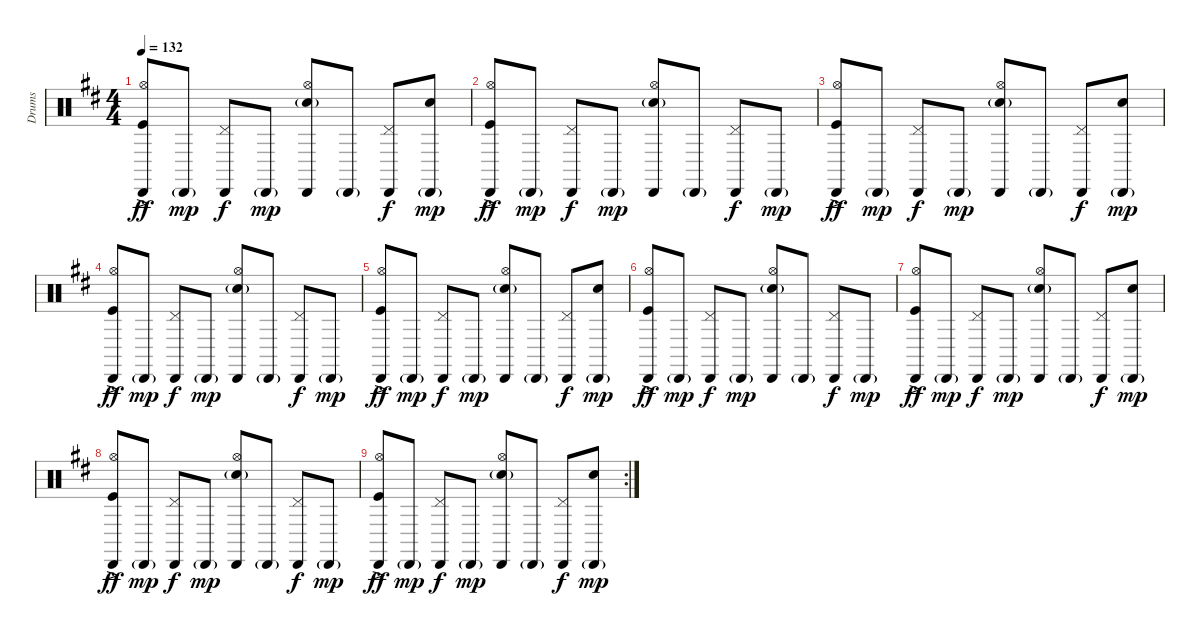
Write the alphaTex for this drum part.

\track ("Drums" "Drums") {instrument percussion}
\staff {score}
\articulation defaults
\ts (4 4)
\tempo 132
\clef neutral
\ks d
("Cabasa (hit)" "Hi-Hat (open)" "Kick (hit)"{ac}).8{dy ff} "Cabasa (hit)"{g}.8{dy mp} ("Cabasa (hit)" "Pedal Hi-Hat (hit)").8{dy f} "Cabasa (hit)"{g}.8{dy mp} ("Cabasa (hit)" "Hi-Hat (open)" "Snare (hit) 2"{g}).8 "Cabasa (hit)"{g}.8 ("Cabasa (hit)" "Pedal Hi-Hat (hit)").8{dy f} ("Cabasa (hit)"{g} "Snare (hit) 2").8{dy mp} |
("Cabasa (hit)" "Hi-Hat (open)" "Kick (hit)"{ac}).8{dy ff} "Cabasa (hit)"{g}.8{dy mp} ("Cabasa (hit)" "Pedal Hi-Hat (hit)").8{dy f} "Cabasa (hit)"{g}.8{dy mp} ("Cabasa (hit)" "Hi-Hat (open)" "Snare (hit) 2"{g}).8 "Cabasa (hit)"{g}.8 ("Cabasa (hit)" "Pedal Hi-Hat (hit)").8{dy f} "Cabasa (hit)"{g}.8{dy mp} |
("Cabasa (hit)" "Hi-Hat (open)" "Kick (hit)"{ac}).8{dy ff} "Cabasa (hit)"{g}.8{dy mp} ("Cabasa (hit)" "Pedal Hi-Hat (hit)").8{dy f} "Cabasa (hit)"{g}.8{dy mp} ("Cabasa (hit)" "Hi-Hat (open)" "Snare (hit) 2"{g}).8 "Cabasa (hit)"{g}.8 ("Cabasa (hit)" "Pedal Hi-Hat (hit)").8{dy f} ("Cabasa (hit)"{g} "Snare (hit) 2").8{dy mp} |
("Cabasa (hit)" "Hi-Hat (open)" "Kick (hit)"{ac}).8{dy ff} "Cabasa (hit)"{g}.8{dy mp} ("Cabasa (hit)" "Pedal Hi-Hat (hit)").8{dy f} "Cabasa (hit)"{g}.8{dy mp} ("Cabasa (hit)" "Hi-Hat (open)" "Snare (hit) 2"{g}).8 "Cabasa (hit)"{g}.8 ("Cabasa (hit)" "Pedal Hi-Hat (hit)").8{dy f} "Cabasa (hit)"{g}.8{dy mp} |
("Cabasa (hit)" "Hi-Hat (open)" "Kick (hit)"{ac}).8{dy ff} "Cabasa (hit)"{g}.8{dy mp} ("Cabasa (hit)" "Pedal Hi-Hat (hit)").8{dy f} "Cabasa (hit)"{g}.8{dy mp} ("Cabasa (hit)" "Hi-Hat (open)" "Snare (hit) 2"{g}).8 "Cabasa (hit)"{g}.8 ("Cabasa (hit)" "Pedal Hi-Hat (hit)").8{dy f} ("Cabasa (hit)"{g} "Snare (hit) 2").8{dy mp} |
("Cabasa (hit)" "Hi-Hat (open)" "Kick (hit)"{ac}).8{dy ff} "Cabasa (hit)"{g}.8{dy mp} ("Cabasa (hit)" "Pedal Hi-Hat (hit)").8{dy f} "Cabasa (hit)"{g}.8{dy mp} ("Cabasa (hit)" "Hi-Hat (open)" "Snare (hit) 2"{g}).8 "Cabasa (hit)"{g}.8 ("Cabasa (hit)" "Pedal Hi-Hat (hit)").8{dy f} "Cabasa (hit)"{g}.8{dy mp} |
("Cabasa (hit)" "Hi-Hat (open)" "Kick (hit)"{ac}).8{dy ff} "Cabasa (hit)"{g}.8{dy mp} ("Cabasa (hit)" "Pedal Hi-Hat (hit)").8{dy f} "Cabasa (hit)"{g}.8{dy mp} ("Cabasa (hit)" "Hi-Hat (open)" "Snare (hit) 2"{g}).8 "Cabasa (hit)"{g}.8 ("Cabasa (hit)" "Pedal Hi-Hat (hit)").8{dy f} ("Cabasa (hit)"{g} "Snare (hit) 2").8{dy mp} |
("Cabasa (hit)" "Hi-Hat (open)" "Kick (hit)"{ac}).8{dy ff} "Cabasa (hit)"{g}.8{dy mp} ("Cabasa (hit)" "Pedal Hi-Hat (hit)").8{dy f} "Cabasa (hit)"{g}.8{dy mp} ("Cabasa (hit)" "Hi-Hat (open)" "Snare (hit) 2"{g}).8 "Cabasa (hit)"{g}.8 ("Cabasa (hit)" "Pedal Hi-Hat (hit)").8{dy f} "Cabasa (hit)"{g}.8{dy mp} |
\rc 2
("Cabasa (hit)" "Hi-Hat (open)" "Kick (hit)"{ac}).8{dy ff} "Cabasa (hit)"{g}.8{dy mp} ("Cabasa (hit)" "Pedal Hi-Hat (hit)").8{dy f} "Cabasa (hit)"{g}.8{dy mp} ("Cabasa (hit)" "Hi-Hat (open)" "Snare (hit) 2"{g}).8 "Cabasa (hit)"{g}.8 ("Cabasa (hit)" "Pedal Hi-Hat (hit)").8{dy f} ("Cabasa (hit)"{g} "Snare (hit) 2").8{dy mp}
